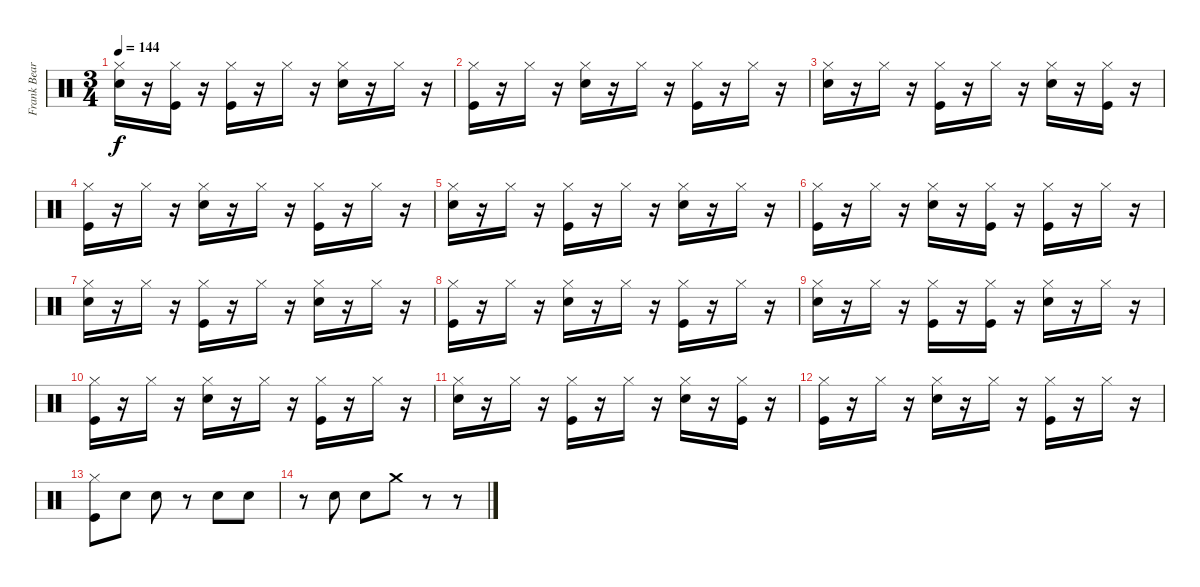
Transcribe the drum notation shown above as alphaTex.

\track ("Frank Beard" "Frank Bear") {instrument percussion}
\staff {score}
\articulation defaults
\ts (3 4)
\tempo 144
\clef neutral
\ks c
("Hi-Hat (closed)" "Electric Snare (hit)").16{dy f} r.16 ("Hi-Hat (closed)" "Kick (hit)").16 r.16 ("Hi-Hat (closed)" "Kick (hit)").16 r.16 "Hi-Hat (closed)".16 r.16 ("Hi-Hat (closed)" "Electric Snare (hit)").16 r.16 "Hi-Hat (closed)".16 r.16 |
("Hi-Hat (closed)" "Kick (hit)").16 r.16 "Hi-Hat (closed)".16 r.16 ("Hi-Hat (closed)" "Electric Snare (hit)").16 r.16 "Hi-Hat (closed)".16 r.16 ("Hi-Hat (closed)" "Kick (hit)").16 r.16 "Hi-Hat (closed)".16 r.16 |
("Hi-Hat (closed)" "Electric Snare (hit)").16 r.16 "Hi-Hat (closed)".16 r.16 ("Hi-Hat (closed)" "Kick (hit)").16 r.16 "Hi-Hat (closed)".16 r.16 ("Hi-Hat (closed)" "Electric Snare (hit)").16 r.16 ("Hi-Hat (closed)" "Kick (hit)").16 r.16 |
("Hi-Hat (closed)" "Kick (hit)").16 r.16 "Hi-Hat (closed)".16 r.16 ("Hi-Hat (closed)" "Electric Snare (hit)").16 r.16 "Hi-Hat (closed)".16 r.16 ("Hi-Hat (closed)" "Kick (hit)").16 r.16 "Hi-Hat (closed)".16 r.16 |
("Hi-Hat (closed)" "Electric Snare (hit)").16 r.16 "Hi-Hat (closed)".16 r.16 ("Hi-Hat (closed)" "Kick (hit)").16 r.16 "Hi-Hat (closed)".16 r.16 ("Hi-Hat (closed)" "Electric Snare (hit)").16 r.16 "Hi-Hat (closed)".16 r.16 |
("Hi-Hat (closed)" "Kick (hit)").16 r.16 "Hi-Hat (closed)".16 r.16 ("Hi-Hat (closed)" "Electric Snare (hit)").16 r.16 ("Hi-Hat (closed)" "Kick (hit)").16 r.16 ("Hi-Hat (closed)" "Kick (hit)").16 r.16 "Hi-Hat (closed)".16 r.16 |
("Hi-Hat (closed)" "Electric Snare (hit)").16 r.16 "Hi-Hat (closed)".16 r.16 ("Hi-Hat (closed)" "Kick (hit)").16 r.16 "Hi-Hat (closed)".16 r.16 ("Hi-Hat (closed)" "Electric Snare (hit)").16 r.16 "Hi-Hat (closed)".16 r.16 |
("Hi-Hat (closed)" "Kick (hit)").16 r.16 "Hi-Hat (closed)".16 r.16 ("Hi-Hat (closed)" "Electric Snare (hit)").16 r.16 "Hi-Hat (closed)".16 r.16 ("Hi-Hat (closed)" "Kick (hit)").16 r.16 "Hi-Hat (closed)".16 r.16 |
("Hi-Hat (closed)" "Electric Snare (hit)").16 r.16 "Hi-Hat (closed)".16 r.16 ("Hi-Hat (closed)" "Kick (hit)").16 r.16 ("Hi-Hat (closed)" "Kick (hit)").16 r.16 ("Hi-Hat (closed)" "Electric Snare (hit)").16 r.16 "Hi-Hat (closed)".16 r.16 |
("Hi-Hat (closed)" "Kick (hit)").16 r.16 "Hi-Hat (closed)".16 r.16 ("Hi-Hat (closed)" "Electric Snare (hit)").16 r.16 "Hi-Hat (closed)".16 r.16 ("Hi-Hat (closed)" "Kick (hit)").16 r.16 "Hi-Hat (closed)".16 r.16 |
("Hi-Hat (closed)" "Electric Snare (hit)").16 r.16 "Hi-Hat (closed)".16 r.16 ("Hi-Hat (closed)" "Kick (hit)").16 r.16 "Hi-Hat (closed)".16 r.16 ("Hi-Hat (closed)" "Electric Snare (hit)").16 r.16 ("Hi-Hat (closed)" "Kick (hit)").16 r.16 |
("Hi-Hat (closed)" "Kick (hit)").16 r.16 "Hi-Hat (closed)".16 r.16 ("Hi-Hat (closed)" "Electric Snare (hit)").16 r.16 "Hi-Hat (closed)".16 r.16 ("Hi-Hat (closed)" "Kick (hit)").16 r.16 "Hi-Hat (closed)".16 r.16 |
("Hi-Hat (closed)" "Kick (hit)").8 "Electric Snare (hit)".8 "Electric Snare (hit)".8 r.8 "Electric Snare (hit)".8 "Electric Snare (hit)".8 |
r.8 "Electric Snare (hit)".8 "Electric Snare (hit)".8 "Crash medium (hit)".8 r.8 r.8
